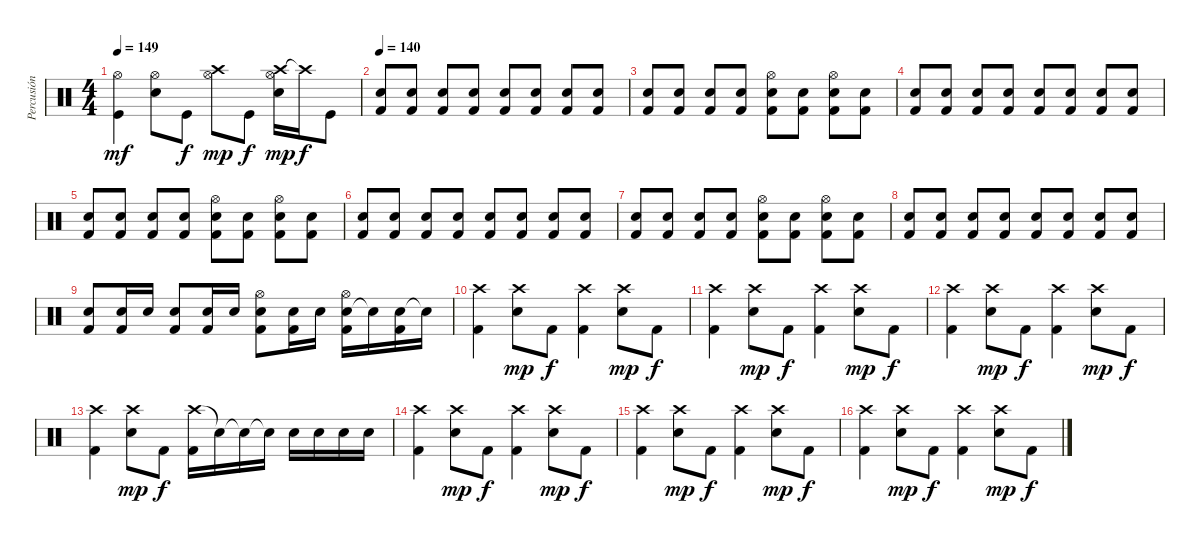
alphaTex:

\track ("Percusión" "Percusión") {instrument percussion}
\staff {score}
\articulation defaults
\ts (4 4)
\tempo 149
\clef neutral
\ks c
("Hi-Hat (open)" "Kick (hit)").4{dy mf} ("Hi-Hat (open)" "Electric Snare (hit)").8 "Kick (hit)".8{dy f} ("Hi-Hat (open)" "Crash high (hit)").8{dy mp} "Kick (hit)".8{dy f} ("Hi-Hat (open)" "Electric Snare (hit)" "Crash high (hit)").16{dy mp} "Crash high (hit)"{t}.16{dy f} "Kick (hit)".8 |
\tempo 140
("Kick (hit) 2" "Electric Snare (hit)").8 ("Kick (hit) 2" "Electric Snare (hit)").8 ("Kick (hit) 2" "Electric Snare (hit)").8 ("Kick (hit) 2" "Electric Snare (hit)").8 ("Kick (hit) 2" "Electric Snare (hit)").8 ("Kick (hit) 2" "Electric Snare (hit)").8 ("Kick (hit) 2" "Electric Snare (hit)").8 ("Kick (hit) 2" "Electric Snare (hit)").8 |
("Kick (hit) 2" "Electric Snare (hit)").8 ("Kick (hit) 2" "Electric Snare (hit)").8 ("Kick (hit) 2" "Electric Snare (hit)").8 ("Kick (hit) 2" "Electric Snare (hit)").8 ("Kick (hit) 2" "Electric Snare (hit)" "Hi-Hat (open)").8 ("Kick (hit) 2" "Electric Snare (hit)").8 ("Kick (hit) 2" "Electric Snare (hit)" "Hi-Hat (open)").8 ("Kick (hit) 2" "Electric Snare (hit)").8 |
("Kick (hit) 2" "Electric Snare (hit)").8 ("Kick (hit) 2" "Electric Snare (hit)").8 ("Kick (hit) 2" "Electric Snare (hit)").8 ("Kick (hit) 2" "Electric Snare (hit)").8 ("Kick (hit) 2" "Electric Snare (hit)").8 ("Kick (hit) 2" "Electric Snare (hit)").8 ("Kick (hit) 2" "Electric Snare (hit)").8 ("Kick (hit) 2" "Electric Snare (hit)").8 |
("Kick (hit) 2" "Electric Snare (hit)").8 ("Kick (hit) 2" "Electric Snare (hit)").8 ("Kick (hit) 2" "Electric Snare (hit)").8 ("Kick (hit) 2" "Electric Snare (hit)").8 ("Kick (hit) 2" "Electric Snare (hit)" "Hi-Hat (open)").8 ("Kick (hit) 2" "Electric Snare (hit)").8 ("Kick (hit) 2" "Electric Snare (hit)" "Hi-Hat (open)").8 ("Kick (hit) 2" "Electric Snare (hit)").8 |
("Kick (hit) 2" "Electric Snare (hit)").8 ("Kick (hit) 2" "Electric Snare (hit)").8 ("Kick (hit) 2" "Electric Snare (hit)").8 ("Kick (hit) 2" "Electric Snare (hit)").8 ("Kick (hit) 2" "Electric Snare (hit)").8 ("Kick (hit) 2" "Electric Snare (hit)").8 ("Kick (hit) 2" "Electric Snare (hit)").8 ("Kick (hit) 2" "Electric Snare (hit)").8 |
("Kick (hit) 2" "Electric Snare (hit)").8 ("Kick (hit) 2" "Electric Snare (hit)").8 ("Kick (hit) 2" "Electric Snare (hit)").8 ("Kick (hit) 2" "Electric Snare (hit)").8 ("Kick (hit) 2" "Electric Snare (hit)" "Hi-Hat (open)").8 ("Kick (hit) 2" "Electric Snare (hit)").8 ("Kick (hit) 2" "Electric Snare (hit)" "Hi-Hat (open)").8 ("Kick (hit) 2" "Electric Snare (hit)").8 |
("Kick (hit) 2" "Electric Snare (hit)").8 ("Kick (hit) 2" "Electric Snare (hit)").8 ("Kick (hit) 2" "Electric Snare (hit)").8 ("Kick (hit) 2" "Electric Snare (hit)").8 ("Kick (hit) 2" "Electric Snare (hit)").8 ("Kick (hit) 2" "Electric Snare (hit)").8 ("Kick (hit) 2" "Electric Snare (hit)").8 ("Kick (hit) 2" "Electric Snare (hit)").8 |
("Kick (hit) 2" "Electric Snare (hit)").8 ("Electric Snare (hit)" "Kick (hit) 2").16 "Electric Snare (hit)".16 ("Electric Snare (hit)" "Kick (hit) 2").8 ("Electric Snare (hit)" "Kick (hit) 2").16 "Electric Snare (hit)".16 ("Electric Snare (hit)" "Kick (hit) 2" "Hi-Hat (open)").8 ("Electric Snare (hit)" "Kick (hit) 2").16 "Electric Snare (hit)".16 ("Electric Snare (hit)" "Kick (hit) 2" "Hi-Hat (open)").16 "Electric Snare (hit)"{t}.16 ("Electric Snare (hit)" "Kick (hit) 2").16 "Electric Snare (hit)"{t}.16 |
("Crash high (hit)" "Kick (hit) 2").4 ("Crash high (hit)" "Electric Snare (hit)").8{dy mp} "Kick (hit) 2".8{dy f} ("Crash high (hit)" "Kick (hit) 2").4 ("Crash high (hit)" "Electric Snare (hit)").8{dy mp} "Kick (hit) 2".8{dy f} |
("Crash high (hit)" "Kick (hit) 2").4 ("Crash high (hit)" "Electric Snare (hit)").8{dy mp} "Kick (hit) 2".8{dy f} ("Crash high (hit)" "Kick (hit) 2").4 ("Crash high (hit)" "Electric Snare (hit)").8{dy mp} "Kick (hit) 2".8{dy f} |
("Crash high (hit)" "Kick (hit) 2").4 ("Crash high (hit)" "Electric Snare (hit)").8{dy mp} "Kick (hit) 2".8{dy f} ("Crash high (hit)" "Kick (hit) 2").4 ("Crash high (hit)" "Electric Snare (hit)").8{dy mp} "Kick (hit) 2".8{dy f} |
("Crash high (hit)" "Kick (hit) 2").4 ("Crash high (hit)" "Electric Snare (hit)").8{dy mp} "Kick (hit) 2".8{dy f} ("Crash high (hit)" "Kick (hit) 2").16 "Electric Snare (hit)"{t}.16 "Electric Snare (hit)"{t}.16 "Electric Snare (hit)"{t}.16 "Electric Snare (hit)".16 "Electric Snare (hit)".16 "Electric Snare (hit)".16 "Electric Snare (hit)".16 |
("Crash high (hit)" "Kick (hit) 2").4 ("Crash high (hit)" "Electric Snare (hit)").8{dy mp} "Kick (hit) 2".8{dy f} ("Crash high (hit)" "Kick (hit) 2").4 ("Crash high (hit)" "Electric Snare (hit)").8{dy mp} "Kick (hit) 2".8{dy f} |
("Crash high (hit)" "Kick (hit) 2").4 ("Crash high (hit)" "Electric Snare (hit)").8{dy mp} "Kick (hit) 2".8{dy f} ("Crash high (hit)" "Kick (hit) 2").4 ("Crash high (hit)" "Electric Snare (hit)").8{dy mp} "Kick (hit) 2".8{dy f} |
("Crash high (hit)" "Kick (hit) 2").4 ("Crash high (hit)" "Electric Snare (hit)").8{dy mp} "Kick (hit) 2".8{dy f} ("Crash high (hit)" "Kick (hit) 2").4 ("Crash high (hit)" "Electric Snare (hit)").8{dy mp} "Kick (hit) 2".8{dy f}
